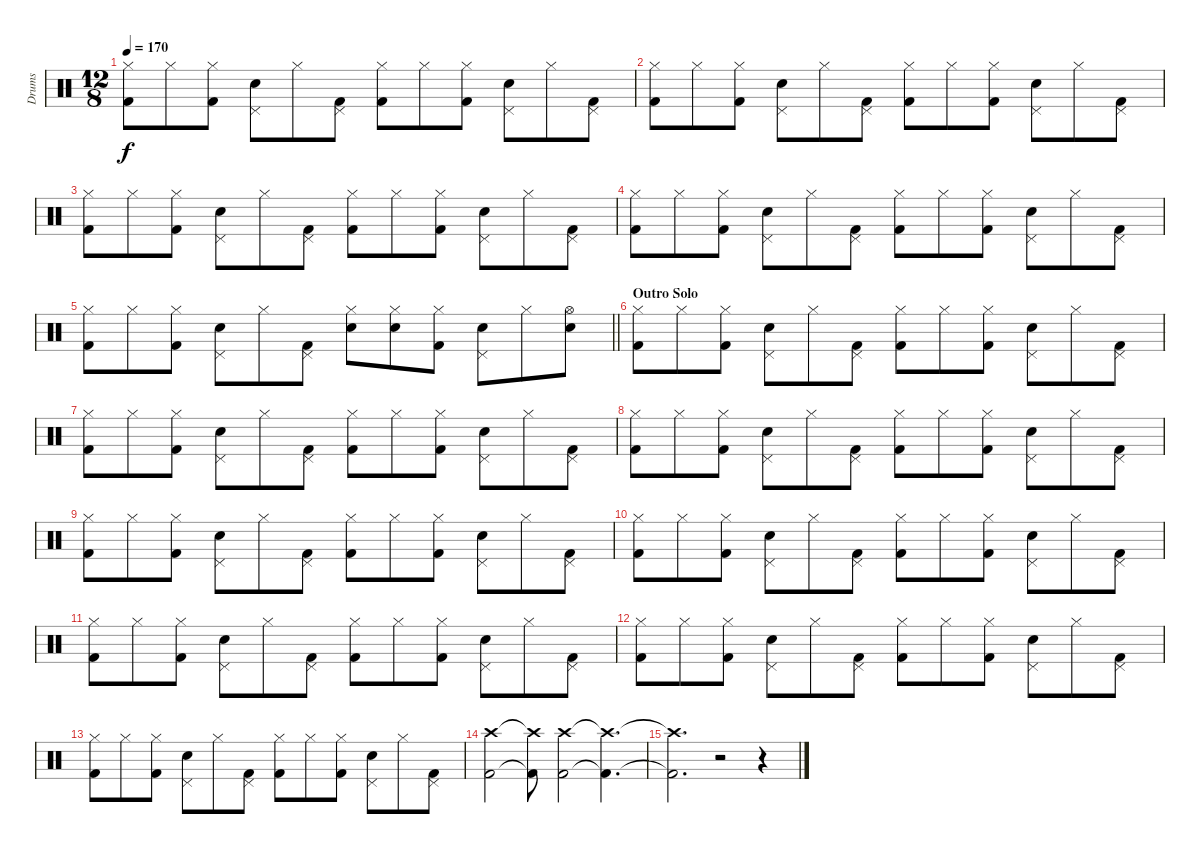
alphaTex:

\track ("Drums" "Drums") {instrument percussion}
\staff {score}
\articulation defaults
\ts (12 8)
\tempo 170
\clef neutral
\ks c
("Kick (hit) 2" "Hi-Hat (closed)").8{dy f} "Hi-Hat (closed)".8 ("Kick (hit) 2" "Hi-Hat (closed)").8 ("Snare (hit) 2" "Pedal Hi-Hat (hit)").8 "Hi-Hat (closed)".8 ("Kick (hit) 2" "Pedal Hi-Hat (hit)").8 ("Kick (hit) 2" "Hi-Hat (closed)").8 "Hi-Hat (closed)".8 ("Kick (hit) 2" "Hi-Hat (closed)").8 ("Snare (hit) 2" "Pedal Hi-Hat (hit)").8 "Hi-Hat (closed)".8 ("Kick (hit) 2" "Pedal Hi-Hat (hit)").8 |
("Kick (hit) 2" "Hi-Hat (closed)").8 "Hi-Hat (closed)".8 ("Kick (hit) 2" "Hi-Hat (closed)").8 ("Snare (hit) 2" "Pedal Hi-Hat (hit)").8 "Hi-Hat (closed)".8 ("Kick (hit) 2" "Pedal Hi-Hat (hit)").8 ("Kick (hit) 2" "Hi-Hat (closed)").8 "Hi-Hat (closed)".8 ("Kick (hit) 2" "Hi-Hat (closed)").8 ("Snare (hit) 2" "Pedal Hi-Hat (hit)").8 "Hi-Hat (closed)".8 ("Kick (hit) 2" "Pedal Hi-Hat (hit)").8 |
("Kick (hit) 2" "Hi-Hat (closed)").8 "Hi-Hat (closed)".8 ("Kick (hit) 2" "Hi-Hat (closed)").8 ("Snare (hit) 2" "Pedal Hi-Hat (hit)").8 "Hi-Hat (closed)".8 ("Kick (hit) 2" "Pedal Hi-Hat (hit)").8 ("Kick (hit) 2" "Hi-Hat (closed)").8 "Hi-Hat (closed)".8 ("Kick (hit) 2" "Hi-Hat (closed)").8 ("Snare (hit) 2" "Pedal Hi-Hat (hit)").8 "Hi-Hat (closed)".8 ("Kick (hit) 2" "Pedal Hi-Hat (hit)").8 |
("Kick (hit) 2" "Hi-Hat (closed)").8 "Hi-Hat (closed)".8 ("Kick (hit) 2" "Hi-Hat (closed)").8 ("Snare (hit) 2" "Pedal Hi-Hat (hit)").8 "Hi-Hat (closed)".8 ("Kick (hit) 2" "Pedal Hi-Hat (hit)").8 ("Kick (hit) 2" "Hi-Hat (closed)").8 "Hi-Hat (closed)".8 ("Kick (hit) 2" "Hi-Hat (closed)").8 ("Snare (hit) 2" "Pedal Hi-Hat (hit)").8 "Hi-Hat (closed)".8 ("Kick (hit) 2" "Pedal Hi-Hat (hit)").8 |
\barLineRight lightlight
("Kick (hit) 2" "Hi-Hat (closed)").8 "Hi-Hat (closed)".8 ("Kick (hit) 2" "Hi-Hat (closed)").8 ("Snare (hit) 2" "Pedal Hi-Hat (hit)").8 "Hi-Hat (closed)".8 ("Kick (hit) 2" "Pedal Hi-Hat (hit)").8 ("Snare (hit) 2" "Hi-Hat (closed)").8 ("Snare (hit) 2" "Hi-Hat (closed)").8 ("Kick (hit) 2" "Hi-Hat (closed)").8 ("Snare (hit) 2" "Pedal Hi-Hat (hit)").8 "Hi-Hat (closed)".8 ("Snare (hit) 2" "Hi-Hat (open)").8 |
\section ("" "Outro Solo")
("Kick (hit) 2" "Hi-Hat (closed)").8 "Hi-Hat (closed)".8 ("Kick (hit) 2" "Hi-Hat (closed)").8 ("Snare (hit) 2" "Pedal Hi-Hat (hit)").8 "Hi-Hat (closed)".8 ("Kick (hit) 2" "Pedal Hi-Hat (hit)").8 ("Kick (hit) 2" "Hi-Hat (closed)").8 "Hi-Hat (closed)".8 ("Kick (hit) 2" "Hi-Hat (closed)").8 ("Snare (hit) 2" "Pedal Hi-Hat (hit)").8 "Hi-Hat (closed)".8 ("Kick (hit) 2" "Pedal Hi-Hat (hit)").8 |
("Kick (hit) 2" "Hi-Hat (closed)").8 "Hi-Hat (closed)".8 ("Kick (hit) 2" "Hi-Hat (closed)").8 ("Snare (hit) 2" "Pedal Hi-Hat (hit)").8 "Hi-Hat (closed)".8 ("Kick (hit) 2" "Pedal Hi-Hat (hit)").8 ("Kick (hit) 2" "Hi-Hat (closed)").8 "Hi-Hat (closed)".8 ("Kick (hit) 2" "Hi-Hat (closed)").8 ("Snare (hit) 2" "Pedal Hi-Hat (hit)").8 "Hi-Hat (closed)".8 ("Kick (hit) 2" "Pedal Hi-Hat (hit)").8 |
("Kick (hit) 2" "Hi-Hat (closed)").8 "Hi-Hat (closed)".8 ("Kick (hit) 2" "Hi-Hat (closed)").8 ("Snare (hit) 2" "Pedal Hi-Hat (hit)").8 "Hi-Hat (closed)".8 ("Kick (hit) 2" "Pedal Hi-Hat (hit)").8 ("Kick (hit) 2" "Hi-Hat (closed)").8 "Hi-Hat (closed)".8 ("Kick (hit) 2" "Hi-Hat (closed)").8 ("Snare (hit) 2" "Pedal Hi-Hat (hit)").8 "Hi-Hat (closed)".8 ("Kick (hit) 2" "Pedal Hi-Hat (hit)").8 |
("Kick (hit) 2" "Hi-Hat (closed)").8 "Hi-Hat (closed)".8 ("Kick (hit) 2" "Hi-Hat (closed)").8 ("Snare (hit) 2" "Pedal Hi-Hat (hit)").8 "Hi-Hat (closed)".8 ("Kick (hit) 2" "Pedal Hi-Hat (hit)").8 ("Kick (hit) 2" "Hi-Hat (closed)").8 "Hi-Hat (closed)".8 ("Kick (hit) 2" "Hi-Hat (closed)").8 ("Snare (hit) 2" "Pedal Hi-Hat (hit)").8 "Hi-Hat (closed)".8 ("Kick (hit) 2" "Pedal Hi-Hat (hit)").8 |
("Kick (hit) 2" "Hi-Hat (closed)").8 "Hi-Hat (closed)".8 ("Kick (hit) 2" "Hi-Hat (closed)").8 ("Snare (hit) 2" "Pedal Hi-Hat (hit)").8 "Hi-Hat (closed)".8 ("Kick (hit) 2" "Pedal Hi-Hat (hit)").8 ("Kick (hit) 2" "Hi-Hat (closed)").8 "Hi-Hat (closed)".8 ("Kick (hit) 2" "Hi-Hat (closed)").8 ("Snare (hit) 2" "Pedal Hi-Hat (hit)").8 "Hi-Hat (closed)".8 ("Kick (hit) 2" "Pedal Hi-Hat (hit)").8 |
("Kick (hit) 2" "Hi-Hat (closed)").8 "Hi-Hat (closed)".8 ("Kick (hit) 2" "Hi-Hat (closed)").8 ("Snare (hit) 2" "Pedal Hi-Hat (hit)").8 "Hi-Hat (closed)".8 ("Kick (hit) 2" "Pedal Hi-Hat (hit)").8 ("Kick (hit) 2" "Hi-Hat (closed)").8 "Hi-Hat (closed)".8 ("Kick (hit) 2" "Hi-Hat (closed)").8 ("Snare (hit) 2" "Pedal Hi-Hat (hit)").8 "Hi-Hat (closed)".8 ("Kick (hit) 2" "Pedal Hi-Hat (hit)").8 |
("Kick (hit) 2" "Hi-Hat (closed)").8 "Hi-Hat (closed)".8 ("Kick (hit) 2" "Hi-Hat (closed)").8 ("Snare (hit) 2" "Pedal Hi-Hat (hit)").8 "Hi-Hat (closed)".8 ("Kick (hit) 2" "Pedal Hi-Hat (hit)").8 ("Kick (hit) 2" "Hi-Hat (closed)").8 "Hi-Hat (closed)".8 ("Kick (hit) 2" "Hi-Hat (closed)").8 ("Snare (hit) 2" "Pedal Hi-Hat (hit)").8 "Hi-Hat (closed)".8 ("Kick (hit) 2" "Pedal Hi-Hat (hit)").8 |
("Kick (hit) 2" "Hi-Hat (closed)").8 "Hi-Hat (closed)".8 ("Kick (hit) 2" "Hi-Hat (closed)").8 ("Snare (hit) 2" "Pedal Hi-Hat (hit)").8 "Hi-Hat (closed)".8 ("Kick (hit) 2" "Pedal Hi-Hat (hit)").8 ("Kick (hit) 2" "Hi-Hat (closed)").8 "Hi-Hat (closed)".8 ("Kick (hit) 2" "Hi-Hat (closed)").8 ("Snare (hit) 2" "Pedal Hi-Hat (hit)").8 "Hi-Hat (closed)".8 ("Kick (hit) 2" "Pedal Hi-Hat (hit)").8 |
("Kick (hit) 2" "Crash high (hit)").2 ("Kick (hit) 2"{t} "Crash high (hit)"{t}).8 ("Kick (hit) 2" "Crash high (hit)").2 ("Kick (hit) 2"{t} "Crash high (hit)"{t}).4{d} |
("Kick (hit) 2"{t} "Crash high (hit)"{t}).2{d} r.2 r.4
